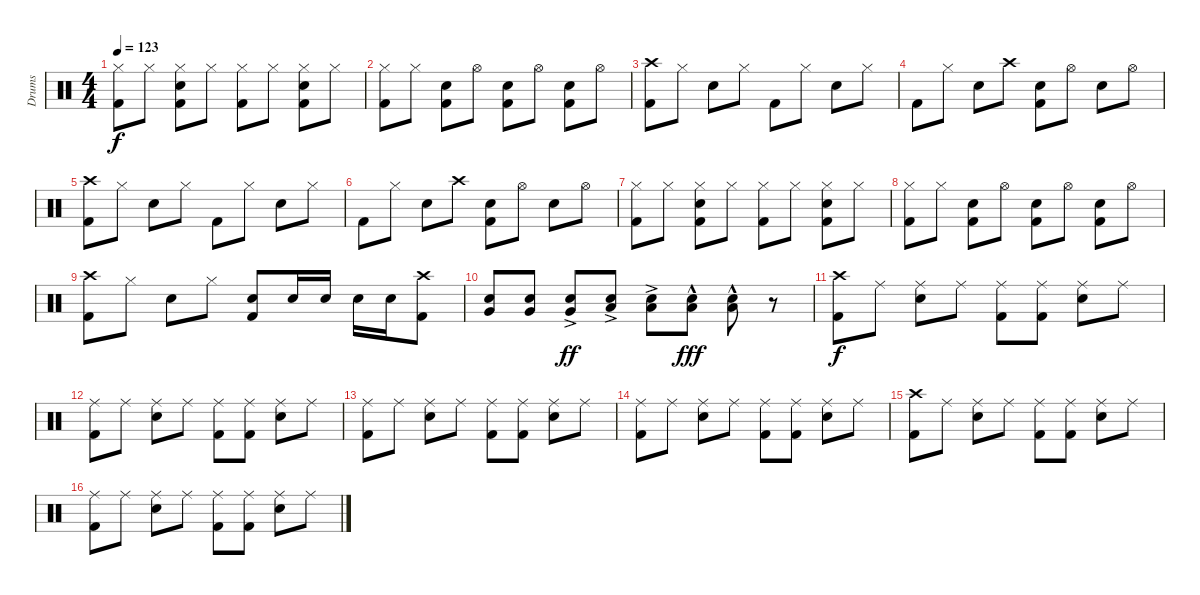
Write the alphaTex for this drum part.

\track ("Drums" "Drums") {instrument percussion}
\staff {score}
\articulation defaults
\ts (4 4)
\tempo 123
\clef neutral
\ks c
("Hi-Hat (closed)" "Kick (hit) 2").8{dy f} "Hi-Hat (closed)".8 ("Hi-Hat (closed)" "Snare (hit) 2" "Kick (hit) 2").8 "Hi-Hat (closed)".8 ("Hi-Hat (closed)" "Kick (hit) 2").8 "Hi-Hat (closed)".8 ("Hi-Hat (closed)" "Snare (hit) 2" "Kick (hit) 2").8 "Hi-Hat (closed)".8 |
("Hi-Hat (closed)" "Kick (hit) 2").8 "Hi-Hat (closed)".8 ("Snare (hit) 2" "Kick (hit) 2").8 "Hi-Hat (open)".8 ("Snare (hit) 2" "Kick (hit) 2").8 "Hi-Hat (open)".8 ("Snare (hit) 2" "Kick (hit) 2").8 "Hi-Hat (open)".8 |
("Crash high (hit)" "Kick (hit) 2").8 "Hi-Hat (closed)".8 "Snare (hit) 2".8 "Hi-Hat (closed)".8 "Kick (hit) 2".8 "Hi-Hat (closed)".8 "Snare (hit) 2".8 "Hi-Hat (closed)".8 |
"Kick (hit) 2".8 "Hi-Hat (closed)".8 "Snare (hit) 2".8 "Crash high (hit)".8 ("Snare (hit) 2" "Kick (hit) 2").8 "Hi-Hat (open)".8 "Snare (hit) 2".8 "Hi-Hat (open)".8 |
("Crash high (hit)" "Kick (hit) 2").8 "Hi-Hat (closed)".8 "Snare (hit) 2".8 "Hi-Hat (closed)".8 "Kick (hit) 2".8 "Hi-Hat (closed)".8 "Snare (hit) 2".8 "Hi-Hat (closed)".8 |
"Kick (hit) 2".8 "Hi-Hat (closed)".8 "Snare (hit) 2".8 "Crash high (hit)".8 ("Snare (hit) 2" "Kick (hit) 2").8 "Hi-Hat (open)".8 "Snare (hit) 2".8 "Hi-Hat (open)".8 |
("Hi-Hat (closed)" "Kick (hit) 2").8 "Hi-Hat (closed)".8 ("Hi-Hat (closed)" "Snare (hit) 2" "Kick (hit) 2").8 "Hi-Hat (closed)".8 ("Hi-Hat (closed)" "Kick (hit) 2").8 "Hi-Hat (closed)".8 ("Hi-Hat (closed)" "Snare (hit) 2" "Kick (hit) 2").8 "Hi-Hat (closed)".8 |
("Hi-Hat (closed)" "Kick (hit) 2").8 "Hi-Hat (closed)".8 ("Snare (hit) 2" "Kick (hit) 2").8 "Hi-Hat (open)".8 ("Snare (hit) 2" "Kick (hit) 2").8 "Hi-Hat (open)".8 ("Snare (hit) 2" "Kick (hit) 2").8 "Hi-Hat (open)".8 |
("Crash high (hit)" "Kick (hit) 2").8 "Hi-Hat (closed)".8 "Snare (hit) 2".8 "Hi-Hat (closed)".8 ("Snare (hit) 2" "Kick (hit) 2").8 "Snare (hit) 2".16 "Snare (hit) 2".16 "Snare (hit) 2".16 "Snare (hit) 2".16 ("Crash high (hit)" "Kick (hit) 2").8 |
("Snare (hit) 2" "Very Low Tom (hit)").8 ("Snare (hit) 2" "Very Low Tom (hit)").8 ("Snare (hit) 2"{ac} "Very Low Tom (hit)"{ac}).8{dy ff} ("Snare (hit) 2"{ac} "Low Tom (hit)"{ac}).8 ("Snare (hit) 2"{ac} "Low Tom (hit)"{ac}).8 ("Snare (hit) 2"{hac} "Low Tom (hit)"{hac}).8{dy fff} ("Snare (hit) 2"{hac} "Low Tom (hit)"{hac}).8 r.8 |
("Crash high (hit)" "Kick (hit) 2").8{dy f} "Ride (middle)".8 ("Ride (middle)" "Snare (hit) 2").8 "Ride (middle)".8 ("Ride (middle)" "Kick (hit) 2").8 ("Ride (middle)" "Kick (hit) 2").8 ("Ride (middle)" "Snare (hit) 2").8 "Ride (middle)".8 |
("Ride (middle)" "Kick (hit) 2").8 "Ride (middle)".8 ("Ride (middle)" "Snare (hit) 2").8 "Ride (middle)".8 ("Ride (middle)" "Kick (hit) 2").8 ("Ride (middle)" "Kick (hit) 2").8 ("Ride (middle)" "Snare (hit) 2").8 "Ride (middle)".8 |
("Ride (middle)" "Kick (hit) 2").8 "Ride (middle)".8 ("Ride (middle)" "Snare (hit) 2").8 "Ride (middle)".8 ("Ride (middle)" "Kick (hit) 2").8 ("Ride (middle)" "Kick (hit) 2").8 ("Ride (middle)" "Snare (hit) 2").8 "Ride (middle)".8 |
("Ride (middle)" "Kick (hit) 2").8 "Ride (middle)".8 ("Ride (middle)" "Snare (hit) 2").8 "Ride (middle)".8 ("Ride (middle)" "Kick (hit) 2").8 ("Ride (middle)" "Kick (hit) 2").8 ("Ride (middle)" "Snare (hit) 2").8 "Ride (middle)".8 |
("Crash high (hit)" "Kick (hit) 2").8 "Ride (middle)".8 ("Ride (middle)" "Snare (hit) 2").8 "Ride (middle)".8 ("Ride (middle)" "Kick (hit) 2").8 ("Ride (middle)" "Kick (hit) 2").8 ("Ride (middle)" "Snare (hit) 2").8 "Ride (middle)".8 |
("Ride (middle)" "Kick (hit) 2").8 "Ride (middle)".8 ("Ride (middle)" "Snare (hit) 2").8 "Ride (middle)".8 ("Ride (middle)" "Kick (hit) 2").8 ("Ride (middle)" "Kick (hit) 2").8 ("Ride (middle)" "Snare (hit) 2").8 "Ride (middle)".8
